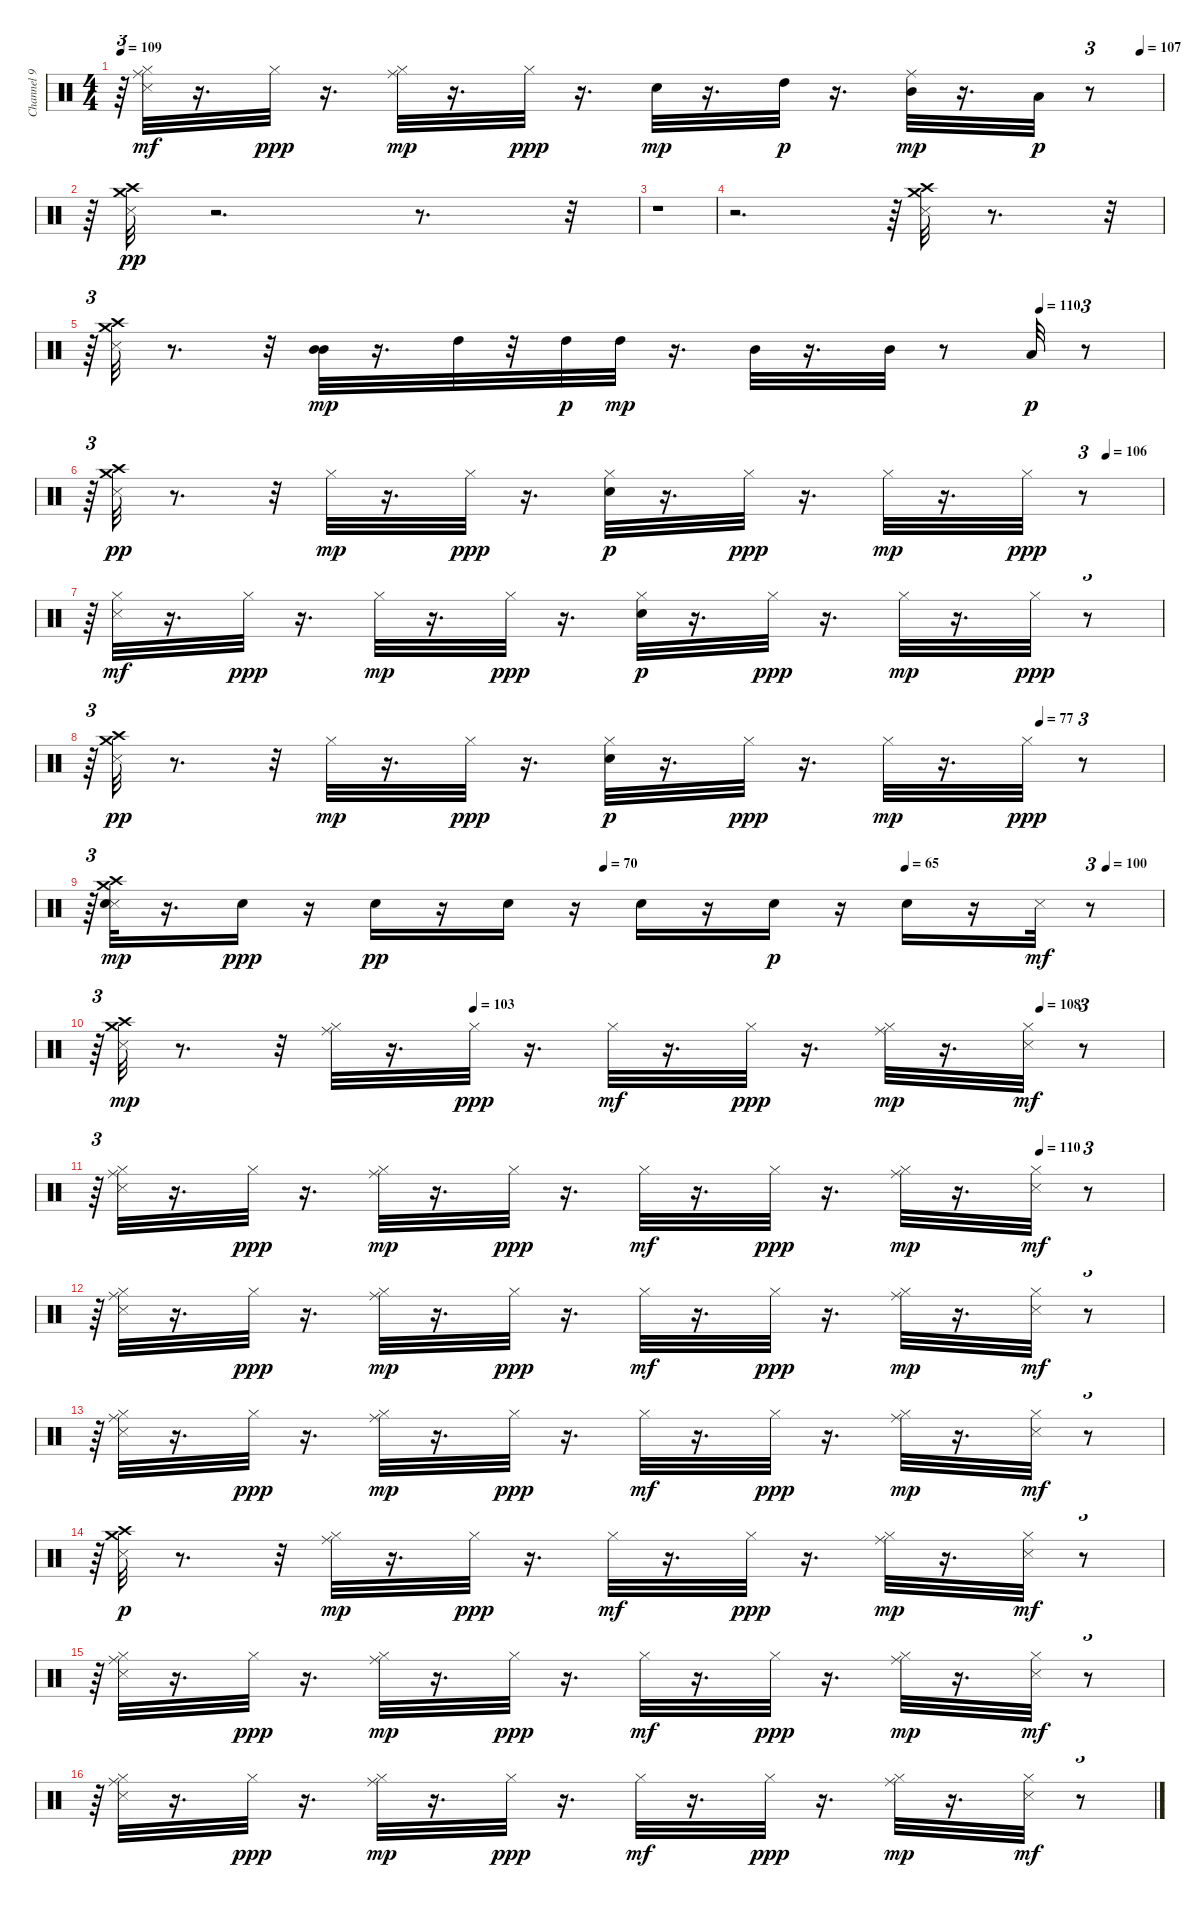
\track ("Channel 9" "Channel 9") {instrument percussion}
\staff {score}
\articulation defaults
\ts (4 4)
\tempo 109
\tempo (107 0.9791666666666666)
\clef neutral
\ks c
r.64{tu (3 2) dy mf} ("Ride (middle)" "Hi-Hat (closed)" "Metronome (hit)").32 r.16{d} "Hi-Hat (closed)".32{dy ppp} r.16{d} ("Ride (middle)" "Hi-Hat (closed)").32{dy mp} r.16{d} "Hi-Hat (closed)".32{dy ppp} r.16{d} "Electric Snare (hit)".32{dy mp} r.16{d} "High Tom (hit)".32{dy p} r.16{d} ("Ride (middle)" "Mid Tom (hit)").32{dy mp} r.16{d} "Low Tom (hit)".32{dy p} r.8{tu (3 2)} |
r.64{tu (3 2)} ("Crash medium (hit)" "Metronome (hit)" "Crash high (hit)").32{dy pp} r.2{d} r.8{d} r.32{tu (3 2)} |
r.1 |
r.2{d} r.64{tu (3 2)} ("Crash medium (hit)" "Metronome (hit)" "Crash high (hit)").32 r.8{d} r.32{tu (3 2)} |
\tempo (110 0.8854166666666666)
r.64{tu (3 2)} ("Crash medium (hit)" "Metronome (hit)" "Crash high (hit)").32 r.8{d} r.32 ("Mid Tom (hit)" "Mid Tom (hit)").32{dy mp} r.16{d} "High Tom (hit)".32 r.32 "High Tom (hit)".32{dy p} "High Tom (hit)".32{dy mp} r.16{d} "Mid Tom (hit)".32 r.16{d} "Mid Tom (hit)".32 r.8 "Low Tom (hit)".32{dy p} r.8{tu (3 2)} |
\tempo (106 0.9479166666666666)
r.64{tu (3 2)} ("Crash medium (hit)" "Metronome (hit)" "Crash high (hit)").32{dy pp} r.8{d} r.32 "Hi-Hat (closed)".32{dy mp} r.16{d} "Hi-Hat (closed)".32{dy ppp} r.16{d} ("Hi-Hat (closed)" "Electric Snare (hit)").32{dy p} r.16{d} "Hi-Hat (closed)".32{dy ppp} r.16{d} "Hi-Hat (closed)".32{dy mp} r.16{d} "Hi-Hat (closed)".32{dy ppp} r.8{tu (3 2)} |
r.64{tu (3 2)} ("Hi-Hat (closed)" "Metronome (hit)").32{dy mf} r.16{d} "Hi-Hat (closed)".32{dy ppp} r.16{d} "Hi-Hat (closed)".32{dy mp} r.16{d} "Hi-Hat (closed)".32{dy ppp} r.16{d} ("Hi-Hat (closed)" "Electric Snare (hit)").32{dy p} r.16{d} "Hi-Hat (closed)".32{dy ppp} r.16{d} "Hi-Hat (closed)".32{dy mp} r.16{d} "Hi-Hat (closed)".32{dy ppp} r.8{tu (3 2)} |
\tempo (77 0.8854166666666666)
r.64{tu (3 2)} ("Crash medium (hit)" "Metronome (hit)" "Crash high (hit)").32{dy pp} r.8{d} r.32 "Hi-Hat (closed)".32{dy mp} r.16{d} "Hi-Hat (closed)".32{dy ppp} r.16{d} ("Hi-Hat (closed)" "Electric Snare (hit)").32{dy p} r.16{d} "Hi-Hat (closed)".32{dy ppp} r.16{d} "Hi-Hat (closed)".32{dy mp} r.16{d} "Hi-Hat (closed)".32{dy ppp} r.8{tu (3 2)} |
\tempo (70 0.4791666666666667)
\tempo (65 0.7604166666666666)
\tempo (100 0.9479166666666666)
r.64{tu (3 2)} ("Crash medium (hit)" "Metronome (hit)" "Crash high (hit)" "Electric Snare (hit)").32{dy mp} r.16{d} "Electric Snare (hit)".16{dy ppp} r.16 "Electric Snare (hit)".16{dy pp} r.16 "Electric Snare (hit)".16 r.16 "Electric Snare (hit)".16 r.16 "Electric Snare (hit)".16{dy p} r.16 "Electric Snare (hit)".16 r.16 "Metronome (hit)".32{dy mf} r.8{tu (3 2)} |
\tempo (103 0.3541666666666667)
\tempo (108 0.8854166666666666)
r.64{tu (3 2)} ("Crash medium (hit)" "Metronome (hit)" "Crash high (hit)").32{dy mp} r.8{d} r.32 ("Ride (middle)" "Hi-Hat (closed)").32 r.16{d} "Hi-Hat (closed)".32{dy ppp} r.16{d} "Hi-Hat (closed)".32{dy mf} r.16{d} "Hi-Hat (closed)".32{dy ppp} r.16{d} ("Ride (middle)" "Hi-Hat (closed)").32{dy mp} r.16{d} ("Hi-Hat (closed)" "Metronome (hit)").32{dy mf} r.8{tu (3 2)} |
\tempo (110 0.8854166666666666)
r.64{tu (3 2)} ("Ride (middle)" "Hi-Hat (closed)" "Metronome (hit)").32 r.16{d} "Hi-Hat (closed)".32{dy ppp} r.16{d} ("Ride (middle)" "Hi-Hat (closed)").32{dy mp} r.16{d} "Hi-Hat (closed)".32{dy ppp} r.16{d} "Hi-Hat (closed)".32{dy mf} r.16{d} "Hi-Hat (closed)".32{dy ppp} r.16{d} ("Ride (middle)" "Hi-Hat (closed)").32{dy mp} r.16{d} ("Hi-Hat (closed)" "Metronome (hit)").32{dy mf} r.8{tu (3 2)} |
r.64{tu (3 2)} ("Ride (middle)" "Hi-Hat (closed)" "Metronome (hit)").32 r.16{d} "Hi-Hat (closed)".32{dy ppp} r.16{d} ("Ride (middle)" "Hi-Hat (closed)").32{dy mp} r.16{d} "Hi-Hat (closed)".32{dy ppp} r.16{d} "Hi-Hat (closed)".32{dy mf} r.16{d} "Hi-Hat (closed)".32{dy ppp} r.16{d} ("Ride (middle)" "Hi-Hat (closed)").32{dy mp} r.16{d} ("Hi-Hat (closed)" "Metronome (hit)").32{dy mf} r.8{tu (3 2)} |
r.64{tu (3 2)} ("Ride (middle)" "Hi-Hat (closed)" "Metronome (hit)").32 r.16{d} "Hi-Hat (closed)".32{dy ppp} r.16{d} ("Ride (middle)" "Hi-Hat (closed)").32{dy mp} r.16{d} "Hi-Hat (closed)".32{dy ppp} r.16{d} "Hi-Hat (closed)".32{dy mf} r.16{d} "Hi-Hat (closed)".32{dy ppp} r.16{d} ("Ride (middle)" "Hi-Hat (closed)").32{dy mp} r.16{d} ("Hi-Hat (closed)" "Metronome (hit)").32{dy mf} r.8{tu (3 2)} |
r.64{tu (3 2)} ("Crash medium (hit)" "Metronome (hit)" "Crash high (hit)").32{dy p} r.8{d} r.32 ("Ride (middle)" "Hi-Hat (closed)").32{dy mp} r.16{d} "Hi-Hat (closed)".32{dy ppp} r.16{d} "Hi-Hat (closed)".32{dy mf} r.16{d} "Hi-Hat (closed)".32{dy ppp} r.16{d} ("Ride (middle)" "Hi-Hat (closed)").32{dy mp} r.16{d} ("Hi-Hat (closed)" "Metronome (hit)").32{dy mf} r.8{tu (3 2)} |
r.64{tu (3 2)} ("Ride (middle)" "Hi-Hat (closed)" "Metronome (hit)").32 r.16{d} "Hi-Hat (closed)".32{dy ppp} r.16{d} ("Ride (middle)" "Hi-Hat (closed)").32{dy mp} r.16{d} "Hi-Hat (closed)".32{dy ppp} r.16{d} "Hi-Hat (closed)".32{dy mf} r.16{d} "Hi-Hat (closed)".32{dy ppp} r.16{d} ("Ride (middle)" "Hi-Hat (closed)").32{dy mp} r.16{d} ("Hi-Hat (closed)" "Metronome (hit)").32{dy mf} r.8{tu (3 2)} |
r.64{tu (3 2)} ("Ride (middle)" "Hi-Hat (closed)" "Metronome (hit)").32 r.16{d} "Hi-Hat (closed)".32{dy ppp} r.16{d} ("Ride (middle)" "Hi-Hat (closed)").32{dy mp} r.16{d} "Hi-Hat (closed)".32{dy ppp} r.16{d} "Hi-Hat (closed)".32{dy mf} r.16{d} "Hi-Hat (closed)".32{dy ppp} r.16{d} ("Ride (middle)" "Hi-Hat (closed)").32{dy mp} r.16{d} ("Hi-Hat (closed)" "Metronome (hit)").32{dy mf} r.8{tu (3 2)}
